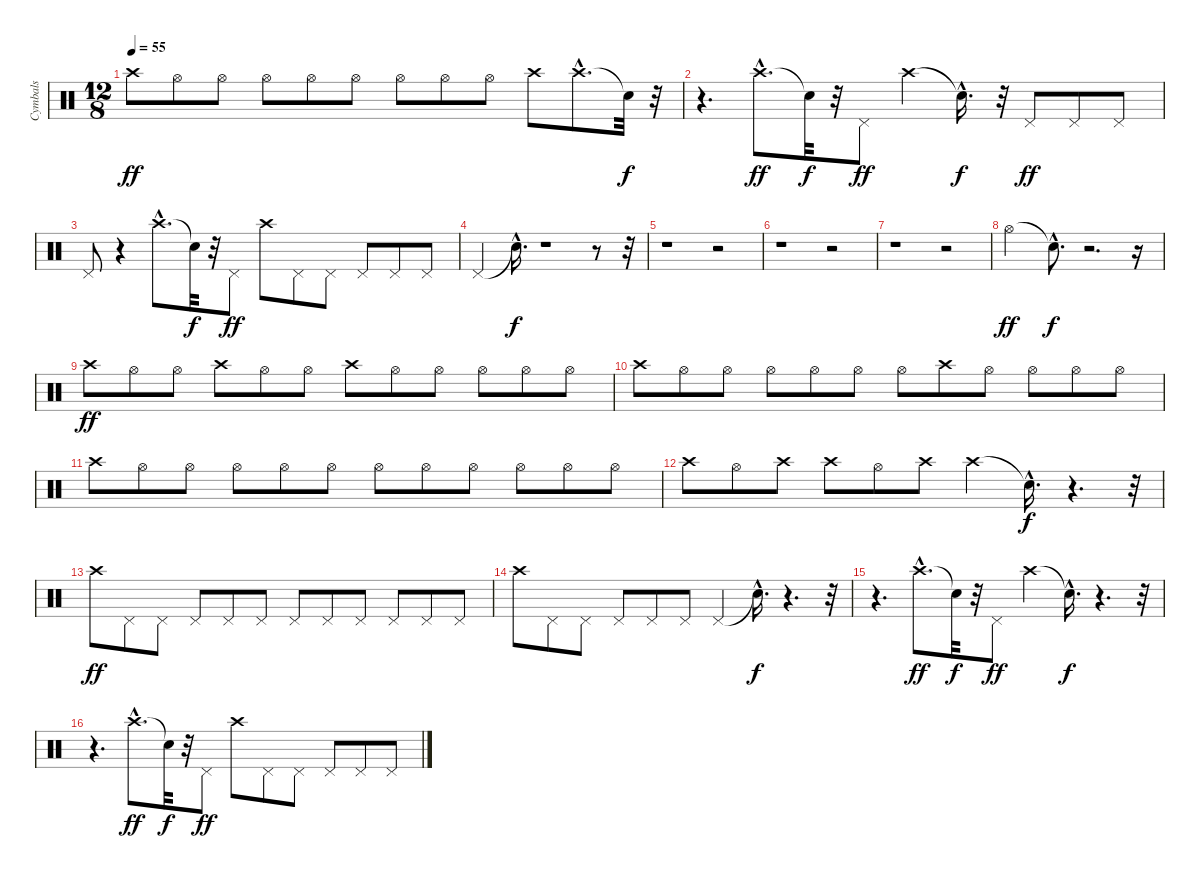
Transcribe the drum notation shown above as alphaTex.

\track ("Cymbals" "Cymbals") {instrument percussion}
\staff {score}
\articulation defaults
\ts (12 8)
\tempo 55
\clef neutral
\ks c "Crash high (hit)".8{dy ff} "Hi-Hat (open)".8 "Hi-Hat (open)".8 "Hi-Hat (open)".8 "Hi-Hat (open)".8 "Hi-Hat (open)".8 "Hi-Hat (open)".8 "Hi-Hat (open)".8 "Hi-Hat (open)".8 "Crash high (hit)".8 "Crash high (hit)"{hac}.8{d} "Snare (hit)"{t}.32{dy f}
r.32 |
r.4{d} "Crash high (hit)"{hac}.8{d dy ff} "Snare (hit)"{t}.32{dy f} r.32 "Pedal Hi-Hat (hit)".8{dy ff} "Crash high (hit)".4 "Snare (hit)"{hac t}.16{d dy f} r.32 "Pedal Hi-Hat (hit)".8{dy ff} "Pedal Hi-Hat (hit)".8 "Pedal Hi-Hat (hit)".8 |
"Pedal Hi-Hat (hit)".8 r.4 "Crash high (hit)"{hac}.8{d} "Snare (hit)"{t}.32{dy f} r.32 "Pedal Hi-Hat (hit)".8{dy ff} "Crash high (hit)".8 "Pedal Hi-Hat (hit)".8 "Pedal Hi-Hat (hit)".8 "Pedal Hi-Hat (hit)".8 "Pedal Hi-Hat (hit)".8 "Pedal Hi-Hat (hit)".8 |
"Pedal Hi-Hat (hit)".4 "Snare (hit)"{hac t}.16{d dy f} r.1 r.8 r.32 |
r.1 r.2 |
r.1 r.2 |
r.1 r.2 |
"Hi-Hat (open)".2{dy ff} "Snare (hit)"{hac t}.8{d dy f} r.2{d} r.16 |
"Crash high (hit)".8{dy ff} "Hi-Hat (open)".8 "Hi-Hat (open)".8 "Crash high (hit)".8 "Hi-Hat (open)".8 "Hi-Hat (open)".8 "Crash high (hit)".8 "Hi-Hat (open)".8 "Hi-Hat (open)".8 "Hi-Hat (open)".8 "Hi-Hat (open)".8 "Hi-Hat (open)".8 |
"Crash high (hit)".8 "Hi-Hat (open)".8 "Hi-Hat (open)".8 "Hi-Hat (open)".8 "Hi-Hat (open)".8 "Hi-Hat (open)".8 "Hi-Hat (open)".8 "Crash high (hit)".8 "Hi-Hat (open)".8 "Hi-Hat (open)".8 "Hi-Hat (open)".8 "Hi-Hat (open)".8 |
"Crash high (hit)".8 "Hi-Hat (open)".8 "Hi-Hat (open)".8 "Hi-Hat (open)".8 "Hi-Hat (open)".8 "Hi-Hat (open)".8 "Hi-Hat (open)".8 "Hi-Hat (open)".8 "Hi-Hat (open)".8 "Hi-Hat (open)".8 "Hi-Hat (open)".8 "Hi-Hat (open)".8 |
"Crash high (hit)".8 "Hi-Hat (open)".8 "Crash high (hit)".8 "Crash high (hit)".8 "Hi-Hat (open)".8 "Crash high (hit)".8 "Crash high (hit)".4 "Snare (hit)"{hac t}.16{d dy f} r.4{d} r.32 |
"Crash high (hit)".8{dy ff} "Pedal Hi-Hat (hit)".8 "Pedal Hi-Hat (hit)".8 "Pedal Hi-Hat (hit)".8 "Pedal Hi-Hat (hit)".8 "Pedal Hi-Hat (hit)".8 "Pedal Hi-Hat (hit)".8 "Pedal Hi-Hat (hit)".8 "Pedal Hi-Hat (hit)".8 "Pedal Hi-Hat (hit)".8 "Pedal Hi-Hat (hit)".8 "Pedal Hi-Hat (hit)".8 |
"Crash high (hit)".8 "Pedal Hi-Hat (hit)".8 "Pedal Hi-Hat (hit)".8 "Pedal Hi-Hat (hit)".8 "Pedal Hi-Hat (hit)".8 "Pedal Hi-Hat (hit)".8 "Pedal Hi-Hat (hit)".4 "Snare (hit)"{hac t}.16{d dy f} r.4{d} r.32 |
r.4{d} "Crash high (hit)"{hac}.8{d dy ff} "Snare (hit)"{t}.32{dy f} r.32 "Pedal Hi-Hat (hit)".8{dy ff} "Crash high (hit)".4 "Snare (hit)"{hac t}.16{d dy f} r.4{d} r.32 |
r.4{d} "Crash high (hit)"{hac}.8{d dy ff} "Snare (hit)"{t}.32{dy f} r.32 "Pedal Hi-Hat (hit)".8{dy ff} "Crash high (hit)".8 "Pedal Hi-Hat (hit)".8 "Pedal Hi-Hat (hit)".8 "Pedal Hi-Hat (hit)".8 "Pedal Hi-Hat (hit)".8 "Pedal Hi-Hat (hit)".8
